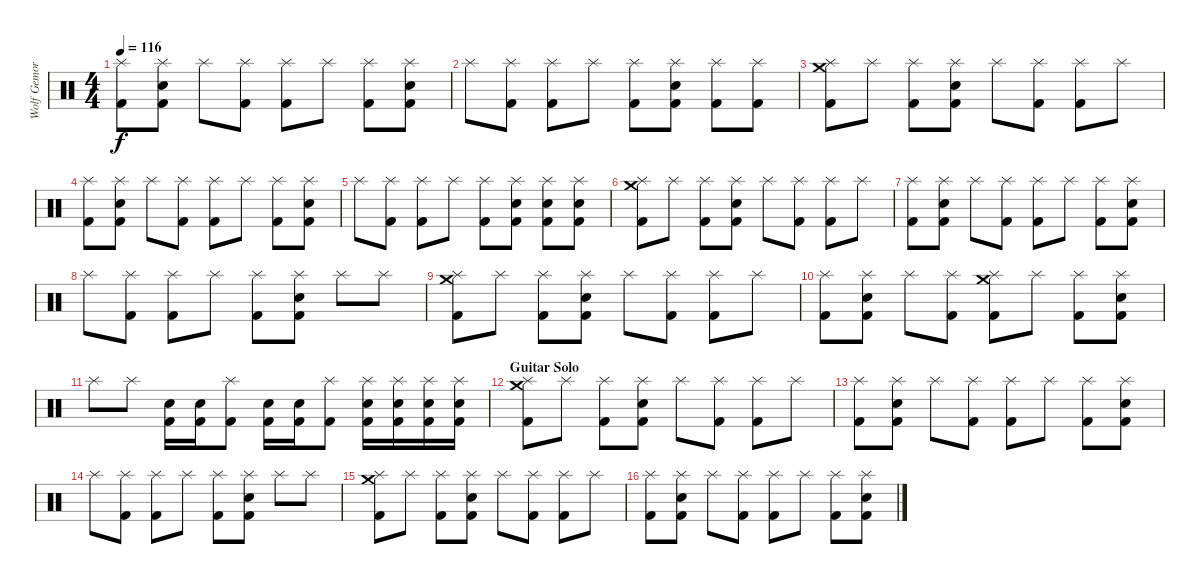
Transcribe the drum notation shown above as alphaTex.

\track ("Wolf Gemora" "Wolf Gemor") {instrument percussion}
\staff {score}
\articulation defaults
\ts (4 4)
\tempo 116
\clef neutral
\ks c
("Splash (hit)" "Kick (hit) 2").8{dy f} ("Snare (hit) 2" "Splash (hit)" "Kick (hit) 2").8 "Splash (hit)".8 ("Splash (hit)" "Kick (hit) 2").8 ("Splash (hit)" "Kick (hit) 2").8 "Splash (hit)".8 ("Splash (hit)" "Kick (hit) 2").8 ("Snare (hit) 2" "Splash (hit)" "Kick (hit) 2").8 |
"Splash (hit)".8 ("Splash (hit)" "Kick (hit) 2").8 ("Splash (hit)" "Kick (hit) 2").8 "Splash (hit)".8 ("Splash (hit)" "Kick (hit) 2").8 ("Snare (hit) 2" "Splash (hit)" "Kick (hit) 2").8 ("Splash (hit)" "Kick (hit) 2").8 ("Splash (hit)" "Kick (hit) 2").8 |
("Crash medium (hit)" "Splash (hit)" "Kick (hit) 2").8 "Splash (hit)".8 ("Splash (hit)" "Kick (hit) 2").8 ("Snare (hit) 2" "Splash (hit)" "Kick (hit) 2").8 "Splash (hit)".8 ("Splash (hit)" "Kick (hit) 2").8 ("Splash (hit)" "Kick (hit) 2").8 "Splash (hit)".8 |
("Splash (hit)" "Kick (hit) 2").8 ("Snare (hit) 2" "Splash (hit)" "Kick (hit) 2").8 "Splash (hit)".8 ("Splash (hit)" "Kick (hit) 2").8 ("Splash (hit)" "Kick (hit) 2").8 "Splash (hit)".8 ("Splash (hit)" "Kick (hit) 2").8 ("Snare (hit) 2" "Splash (hit)" "Kick (hit) 2").8 |
"Splash (hit)".8 ("Splash (hit)" "Kick (hit) 2").8 ("Splash (hit)" "Kick (hit) 2").8 "Splash (hit)".8 ("Splash (hit)" "Kick (hit) 2").8 ("Snare (hit) 2" "Splash (hit)" "Kick (hit) 2").8 ("Snare (hit) 2" "Splash (hit)" "Kick (hit) 2").8 ("Snare (hit) 2" "Splash (hit)" "Kick (hit) 2").8 |
("Crash medium (hit)" "Splash (hit)" "Kick (hit) 2").8 "Splash (hit)".8 ("Splash (hit)" "Kick (hit) 2").8 ("Snare (hit) 2" "Splash (hit)" "Kick (hit) 2").8 "Splash (hit)".8 ("Splash (hit)" "Kick (hit) 2").8 ("Splash (hit)" "Kick (hit) 2").8 "Splash (hit)".8 |
("Splash (hit)" "Kick (hit) 2").8 ("Snare (hit) 2" "Splash (hit)" "Kick (hit) 2").8 "Splash (hit)".8 ("Splash (hit)" "Kick (hit) 2").8 ("Splash (hit)" "Kick (hit) 2").8 "Splash (hit)".8 ("Splash (hit)" "Kick (hit) 2").8 ("Snare (hit) 2" "Splash (hit)" "Kick (hit) 2").8 |
"Splash (hit)".8 ("Splash (hit)" "Kick (hit) 2").8 ("Splash (hit)" "Kick (hit) 2").8 "Splash (hit)".8 ("Splash (hit)" "Kick (hit) 2").8 ("Snare (hit) 2" "Splash (hit)" "Kick (hit) 2").8 "Splash (hit)".8 "Splash (hit)".8 |
("Crash medium (hit)" "Splash (hit)" "Kick (hit) 2").8 "Splash (hit)".8 ("Splash (hit)" "Kick (hit) 2").8 ("Snare (hit) 2" "Splash (hit)" "Kick (hit) 2").8 "Splash (hit)".8 ("Splash (hit)" "Kick (hit) 2").8 ("Splash (hit)" "Kick (hit) 2").8 "Splash (hit)".8 |
("Splash (hit)" "Kick (hit) 2").8 ("Snare (hit) 2" "Splash (hit)" "Kick (hit) 2").8 "Splash (hit)".8 ("Splash (hit)" "Kick (hit) 2").8 ("Crash medium (hit)" "Splash (hit)" "Kick (hit) 2").8 "Splash (hit)".8 ("Splash (hit)" "Kick (hit) 2").8 ("Snare (hit) 2" "Splash (hit)" "Kick (hit) 2").8 |
"Splash (hit)".8 "Splash (hit)".8 ("Snare (hit) 2" "Kick (hit) 2").16 ("Snare (hit) 2" "Kick (hit) 2").16 ("Splash (hit)" "Kick (hit) 2").8 ("Snare (hit) 2" "Kick (hit) 2").16 ("Snare (hit) 2" "Kick (hit) 2").16 ("Splash (hit)" "Kick (hit) 2").8 ("Snare (hit) 2" "Splash (hit)" "Kick (hit) 2").16 ("Snare (hit) 2" "Splash (hit)" "Kick (hit) 2").16 ("Snare (hit) 2" "Splash (hit)" "Kick (hit) 2").16 ("Snare (hit) 2" "Splash (hit)" "Kick (hit) 2").16 |
\section ("" "Guitar Solo")
("Crash medium (hit)" "Splash (hit)" "Kick (hit) 2").8 "Splash (hit)".8 ("Splash (hit)" "Kick (hit) 2").8 ("Snare (hit) 2" "Splash (hit)" "Kick (hit) 2").8 "Splash (hit)".8 ("Splash (hit)" "Kick (hit) 2").8 ("Splash (hit)" "Kick (hit) 2").8 "Splash (hit)".8 |
("Splash (hit)" "Kick (hit) 2").8 ("Snare (hit) 2" "Splash (hit)" "Kick (hit) 2").8 "Splash (hit)".8 ("Splash (hit)" "Kick (hit) 2").8 ("Splash (hit)" "Kick (hit) 2").8 "Splash (hit)".8 ("Splash (hit)" "Kick (hit) 2").8 ("Snare (hit) 2" "Splash (hit)" "Kick (hit) 2").8 |
"Splash (hit)".8 ("Splash (hit)" "Kick (hit) 2").8 ("Splash (hit)" "Kick (hit) 2").8 "Splash (hit)".8 ("Splash (hit)" "Kick (hit) 2").8 ("Snare (hit) 2" "Splash (hit)" "Kick (hit) 2").8 "Splash (hit)".8 "Splash (hit)".8 |
("Crash medium (hit)" "Splash (hit)" "Kick (hit) 2").8 "Splash (hit)".8 ("Splash (hit)" "Kick (hit) 2").8 ("Snare (hit) 2" "Splash (hit)" "Kick (hit) 2").8 "Splash (hit)".8 ("Splash (hit)" "Kick (hit) 2").8 ("Splash (hit)" "Kick (hit) 2").8 "Splash (hit)".8 |
("Splash (hit)" "Kick (hit) 2").8 ("Snare (hit) 2" "Splash (hit)" "Kick (hit) 2").8 "Splash (hit)".8 ("Splash (hit)" "Kick (hit) 2").8 ("Splash (hit)" "Kick (hit) 2").8 "Splash (hit)".8 ("Splash (hit)" "Kick (hit) 2").8 ("Snare (hit) 2" "Splash (hit)" "Kick (hit) 2").8
